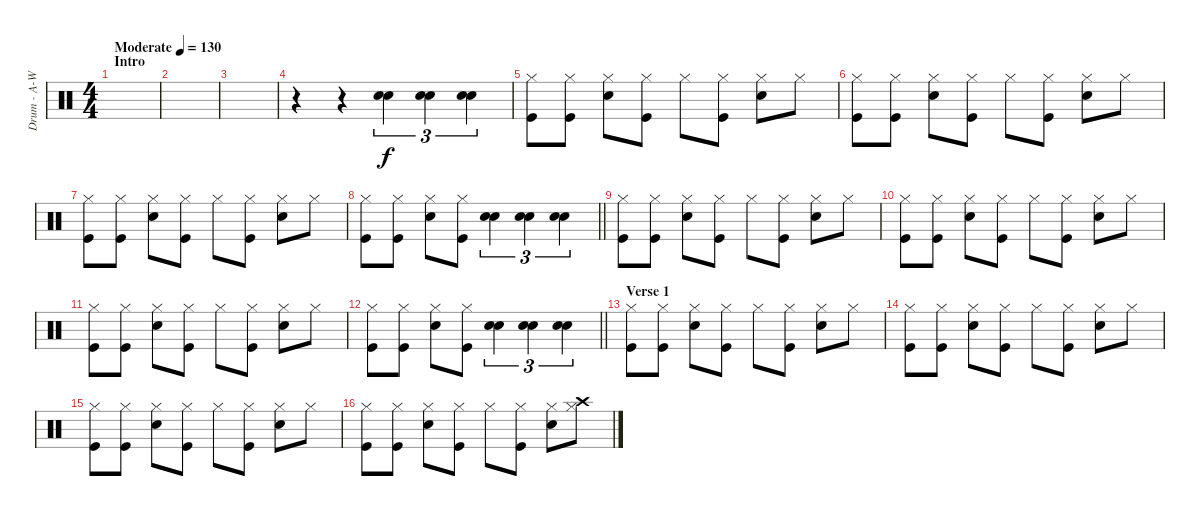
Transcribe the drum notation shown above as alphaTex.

\track ("Drum - A-Word" "Drum - A-W") {instrument percussion}
\staff {score}
\articulation defaults
\ts (4 4)
\section ("" "Intro")
\tempo (130 "Moderate")
\clef neutral
\ks c
|
|
|
r.4 r.4 ("Snare (hit) 2" "Snare (hit) 2").4{tu (3 2)} ("Snare (hit) 2" "Snare (hit) 2").4{tu (3 2)} ("Snare (hit) 2" "Snare (hit) 2").4{tu (3 2)} |
("Hi-Hat (closed)" "Kick (hit)").8 ("Hi-Hat (closed)" "Kick (hit)").8 ("Hi-Hat (closed)" "Snare (hit) 2").8 ("Hi-Hat (closed)" "Kick (hit)").8 "Hi-Hat (closed)".8 ("Hi-Hat (closed)" "Kick (hit)").8 ("Hi-Hat (closed)" "Snare (hit) 2").8 "Hi-Hat (closed)".8 |
("Hi-Hat (closed)" "Kick (hit)").8 ("Hi-Hat (closed)" "Kick (hit)").8 ("Hi-Hat (closed)" "Snare (hit) 2").8 ("Hi-Hat (closed)" "Kick (hit)").8 "Hi-Hat (closed)".8 ("Hi-Hat (closed)" "Kick (hit)").8 ("Hi-Hat (closed)" "Snare (hit) 2").8 "Hi-Hat (closed)".8 |
("Hi-Hat (closed)" "Kick (hit)").8 ("Hi-Hat (closed)" "Kick (hit)").8 ("Hi-Hat (closed)" "Snare (hit) 2").8 ("Hi-Hat (closed)" "Kick (hit)").8 "Hi-Hat (closed)".8 ("Hi-Hat (closed)" "Kick (hit)").8 ("Hi-Hat (closed)" "Snare (hit) 2").8 "Hi-Hat (closed)".8 |
\barLineRight lightlight
("Hi-Hat (closed)" "Kick (hit)").8 ("Hi-Hat (closed)" "Kick (hit)").8 ("Hi-Hat (closed)" "Snare (hit) 2").8 ("Hi-Hat (closed)" "Kick (hit)").8 ("Snare (hit) 2" "Snare (hit) 2").4{tu (3 2)} ("Snare (hit) 2" "Snare (hit) 2").4{tu (3 2)} ("Snare (hit) 2" "Snare (hit) 2").4{tu (3 2)} |
("Hi-Hat (closed)" "Kick (hit)").8 ("Hi-Hat (closed)" "Kick (hit)").8 ("Hi-Hat (closed)" "Snare (hit) 2").8 ("Hi-Hat (closed)" "Kick (hit)").8 "Hi-Hat (closed)".8 ("Hi-Hat (closed)" "Kick (hit)").8 ("Hi-Hat (closed)" "Snare (hit) 2").8 "Hi-Hat (closed)".8 |
("Hi-Hat (closed)" "Kick (hit)").8 ("Hi-Hat (closed)" "Kick (hit)").8 ("Hi-Hat (closed)" "Snare (hit) 2").8 ("Hi-Hat (closed)" "Kick (hit)").8 "Hi-Hat (closed)".8 ("Hi-Hat (closed)" "Kick (hit)").8 ("Hi-Hat (closed)" "Snare (hit) 2").8 "Hi-Hat (closed)".8 |
("Hi-Hat (closed)" "Kick (hit)").8 ("Hi-Hat (closed)" "Kick (hit)").8 ("Hi-Hat (closed)" "Snare (hit) 2").8 ("Hi-Hat (closed)" "Kick (hit)").8 "Hi-Hat (closed)".8 ("Hi-Hat (closed)" "Kick (hit)").8 ("Hi-Hat (closed)" "Snare (hit) 2").8 "Hi-Hat (closed)".8 |
\barLineRight lightlight
("Hi-Hat (closed)" "Kick (hit)").8 ("Hi-Hat (closed)" "Kick (hit)").8 ("Hi-Hat (closed)" "Snare (hit) 2").8 ("Hi-Hat (closed)" "Kick (hit)").8 ("Snare (hit) 2" "Snare (hit) 2").4{tu (3 2)} ("Snare (hit) 2" "Snare (hit) 2").4{tu (3 2)} ("Snare (hit) 2" "Snare (hit) 2").4{tu (3 2)} |
\section ("" "Verse 1")
("Hi-Hat (closed)" "Kick (hit)").8 ("Hi-Hat (closed)" "Kick (hit)").8 ("Hi-Hat (closed)" "Snare (hit) 2").8 ("Hi-Hat (closed)" "Kick (hit)").8 "Hi-Hat (closed)".8 ("Hi-Hat (closed)" "Kick (hit)").8 ("Hi-Hat (closed)" "Snare (hit) 2").8 "Hi-Hat (closed)".8 |
("Hi-Hat (closed)" "Kick (hit)").8 ("Hi-Hat (closed)" "Kick (hit)").8 ("Hi-Hat (closed)" "Snare (hit) 2").8 ("Hi-Hat (closed)" "Kick (hit)").8 "Hi-Hat (closed)".8 ("Hi-Hat (closed)" "Kick (hit)").8 ("Hi-Hat (closed)" "Snare (hit) 2").8 "Hi-Hat (closed)".8 |
("Hi-Hat (closed)" "Kick (hit)").8 ("Hi-Hat (closed)" "Kick (hit)").8 ("Hi-Hat (closed)" "Snare (hit) 2").8 ("Hi-Hat (closed)" "Kick (hit)").8 "Hi-Hat (closed)".8 ("Hi-Hat (closed)" "Kick (hit)").8 ("Hi-Hat (closed)" "Snare (hit) 2").8 "Hi-Hat (closed)".8 |
("Hi-Hat (closed)" "Kick (hit)").8 ("Hi-Hat (closed)" "Kick (hit)").8 ("Hi-Hat (closed)" "Snare (hit) 2").8 ("Hi-Hat (closed)" "Kick (hit)").8 "Hi-Hat (closed)".8 ("Hi-Hat (closed)" "Kick (hit)").8 ("Hi-Hat (closed)" "Snare (hit) 2").8 ("Hi-Hat (closed)" "Crash high (hit)").8
